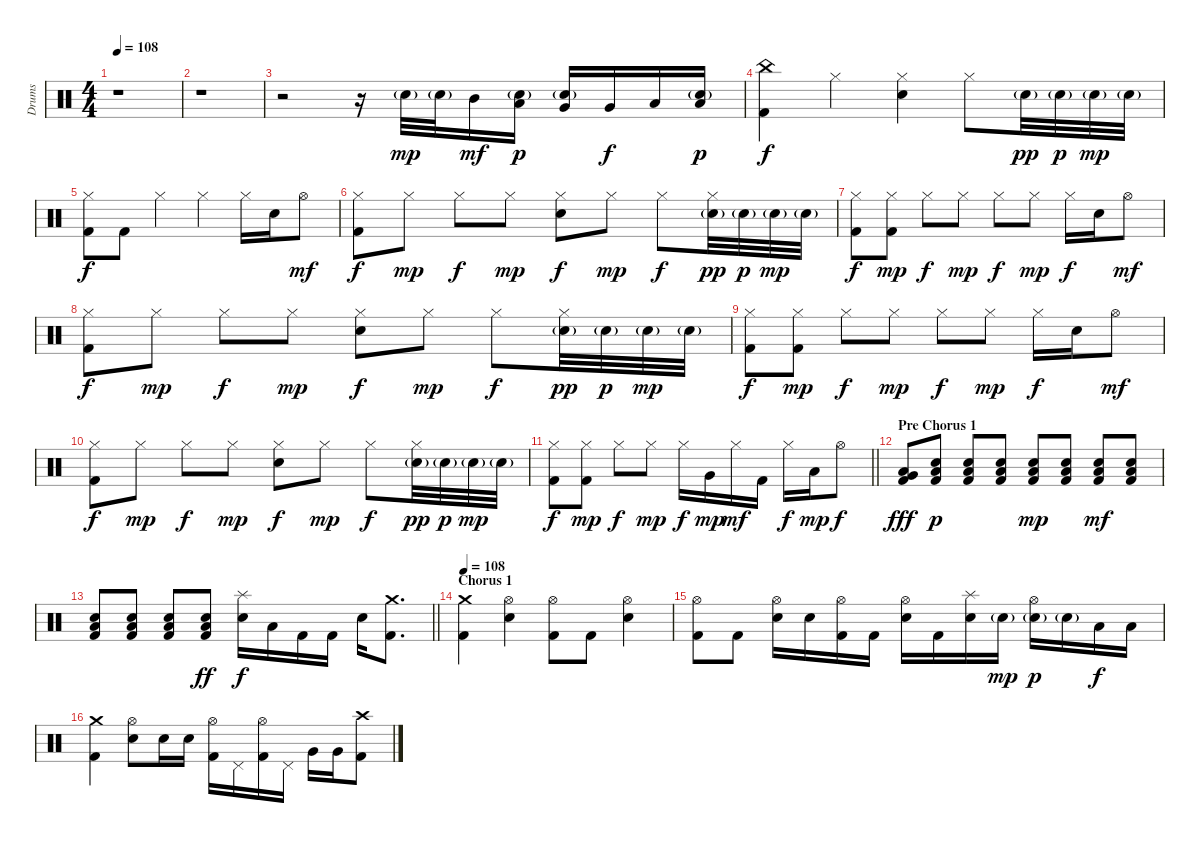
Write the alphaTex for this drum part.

\track ("Drums" "Drums") {instrument percussion}
\staff {score}
\articulation defaults
\ts (4 4)
\tempo 108
\clef neutral
\ks c
r.1{dy f} |
r.1 |
r.2 r.16 "Electric Snare (hit)"{g}.32{dy mp} "Electric Snare (hit)"{g}.32 "Mid Tom (hit)".16{dy mf} ("Low Tom (hit)" "Electric Snare (hit)"{g}).16{dy p} ("Very Low Tom (hit)" "Electric Snare (hit)"{g}).16 "Very Low Tom (hit)".16{dy f} "Low Floor Tom (hit)".16 ("Low Floor Tom (hit)" "Electric Snare (hit)"{g}).16{dy p} |
("China (hit)" "Kick (hit) 2").4{dy f} "Hi-Hat (closed)".4 ("Hi-Hat (closed)" "Electric Snare (hit)").4 "Hi-Hat (closed)".8 "Electric Snare (hit)"{g}.32{dy pp} "Electric Snare (hit)"{g}.32{dy p} "Electric Snare (hit)"{g}.32{dy mp} "Electric Snare (hit)"{g}.32 |
("Hi-Hat (closed)" "Kick (hit) 2").8{dy f} "Kick (hit) 2".8 "Hi-Hat (closed)".4 "Hi-Hat (closed)".4 "Hi-Hat (closed)".16 "Electric Snare (hit)".16 "Hi-Hat (open)".8{dy mf} |
("Hi-Hat (closed)" "Kick (hit) 2").8{dy f} "Hi-Hat (closed)".8{dy mp} "Hi-Hat (closed)".8{dy f} "Hi-Hat (closed)".8{dy mp} ("Hi-Hat (closed)" "Electric Snare (hit)").8{dy f} "Hi-Hat (closed)".8{dy mp} "Hi-Hat (closed)".8{dy f} ("Hi-Hat (closed)" "Electric Snare (hit)"{g}).32{dy pp} "Electric Snare (hit)"{g}.32{dy p} "Electric Snare (hit)"{g}.32{dy mp} "Electric Snare (hit)"{g}.32 |
("Hi-Hat (closed)" "Kick (hit) 2").8{dy f} ("Hi-Hat (closed)" "Kick (hit) 2").8{dy mp} "Hi-Hat (closed)".8{dy f} "Hi-Hat (closed)".8{dy mp} "Hi-Hat (closed)".8{dy f} "Hi-Hat (closed)".8{dy mp} "Hi-Hat (closed)".16{dy f} "Electric Snare (hit)".16 "Hi-Hat (open)".8{dy mf} |
("Hi-Hat (closed)" "Kick (hit) 2").8{dy f} "Hi-Hat (closed)".8{dy mp} "Hi-Hat (closed)".8{dy f} "Hi-Hat (closed)".8{dy mp} ("Hi-Hat (closed)" "Electric Snare (hit)").8{dy f} "Hi-Hat (closed)".8{dy mp} "Hi-Hat (closed)".8{dy f} ("Hi-Hat (closed)" "Electric Snare (hit)"{g}).32{dy pp} "Electric Snare (hit)"{g}.32{dy p} "Electric Snare (hit)"{g}.32{dy mp} "Electric Snare (hit)"{g}.32 |
("Hi-Hat (closed)" "Kick (hit) 2").8{dy f} ("Hi-Hat (closed)" "Kick (hit) 2").8{dy mp} "Hi-Hat (closed)".8{dy f} "Hi-Hat (closed)".8{dy mp} "Hi-Hat (closed)".8{dy f} "Hi-Hat (closed)".8{dy mp} "Hi-Hat (closed)".16{dy f} "Electric Snare (hit)".16 "Hi-Hat (open)".8{dy mf} |
("Hi-Hat (closed)" "Kick (hit) 2").8{dy f} "Hi-Hat (closed)".8{dy mp} "Hi-Hat (closed)".8{dy f} "Hi-Hat (closed)".8{dy mp} ("Hi-Hat (closed)" "Electric Snare (hit)").8{dy f} "Hi-Hat (closed)".8{dy mp} "Hi-Hat (closed)".8{dy f} ("Hi-Hat (closed)" "Electric Snare (hit)"{g}).32{dy pp} "Electric Snare (hit)"{g}.32{dy p} "Electric Snare (hit)"{g}.32{dy mp} "Electric Snare (hit)"{g}.32 |
\barLineRight lightlight
("Hi-Hat (closed)" "Kick (hit) 2").8{dy f} ("Hi-Hat (closed)" "Kick (hit) 2").8{dy mp} "Hi-Hat (closed)".8{dy f} "Hi-Hat (closed)".8{dy mp} "Hi-Hat (closed)".16{dy f} "Very Low Tom (hit)".16{dy mp} "Hi-Hat (closed)".16{dy mf} "Kick (hit) 2".16 "Hi-Hat (closed)".16{dy f} "Low Tom (hit)".16{dy mp} "Hi-Hat (open)".8{dy f} |
\section ("" "Pre Chorus 1")
("Very Low Tom (hit)" "Low Floor Tom (hit)" "Kick (hit) 2").8{dy fff} ("Low Floor Tom (hit)" "Electric Snare (hit)" "Kick (hit) 2").8{dy p} ("Low Floor Tom (hit)" "Electric Snare (hit)" "Kick (hit) 2").8 ("Low Floor Tom (hit)" "Electric Snare (hit)" "Kick (hit) 2").8 ("Low Floor Tom (hit)" "Electric Snare (hit)" "Kick (hit) 2").8{dy mp} ("Low Floor Tom (hit)" "Electric Snare (hit)" "Kick (hit) 2").8 ("Low Floor Tom (hit)" "Electric Snare (hit)" "Kick (hit) 2").8{dy mf} ("Low Floor Tom (hit)" "Electric Snare (hit)" "Kick (hit) 2").8 |
\barLineRight lightlight
("Low Floor Tom (hit)" "Electric Snare (hit)" "Kick (hit) 2").8 ("Low Floor Tom (hit)" "Electric Snare (hit)" "Kick (hit) 2").8 ("Low Floor Tom (hit)" "Electric Snare (hit)" "Kick (hit) 2").8 ("Low Floor Tom (hit)" "Electric Snare (hit)" "Kick (hit) 2").8{dy ff} ("Splash (hit)" "Electric Snare (hit)").16{dy f} "Low Tom (hit)".16 "Kick (hit) 2".16 "Kick (hit) 2".16 "Electric Snare (hit)".16 ("Crash medium (hit)" "Kick (hit) 2").8{d} |
\section ("" "Chorus 1")
\tempo 108
("Crash medium (hit)" "Kick (hit) 2").4 ("Hi-Hat (open)" "Electric Snare (hit)").4 ("Hi-Hat (open)" "Kick (hit) 2").8 "Kick (hit) 2".8 ("Hi-Hat (open)" "Electric Snare (hit)").4 |
("Hi-Hat (open)" "Kick (hit) 2").8 "Kick (hit) 2".8 ("Hi-Hat (open)" "Electric Snare (hit)").16 "Electric Snare (hit)".16 ("Hi-Hat (open)" "Kick (hit) 2").16 "Kick (hit) 2".16 ("Hi-Hat (open)" "Electric Snare (hit)").16 "Kick (hit) 2".16 ("Splash (hit)" "Electric Snare (hit)").16 "Electric Snare (hit)"{g}.16{dy mp} ("Hi-Hat (open)" "Electric Snare (hit)"{g}).16{dy p} "Electric Snare (hit)"{g}.16 "Low Tom (hit)".16{dy f} "Low Tom (hit)".16 |
("Crash medium (hit)" "Kick (hit) 2").4 ("Hi-Hat (open)" "Electric Snare (hit)").8 "Electric Snare (hit)".16 "Electric Snare (hit)".16 ("Hi-Hat (open)" "Kick (hit) 2").16 "Pedal Hi-Hat (hit)".16 ("Hi-Hat (open)" "Kick (hit) 2").16 "Pedal Hi-Hat (hit)".16 "Very Low Tom (hit)".16 "Very Low Tom (hit)".16 ("Crash high (hit)" "Kick (hit) 2").8
